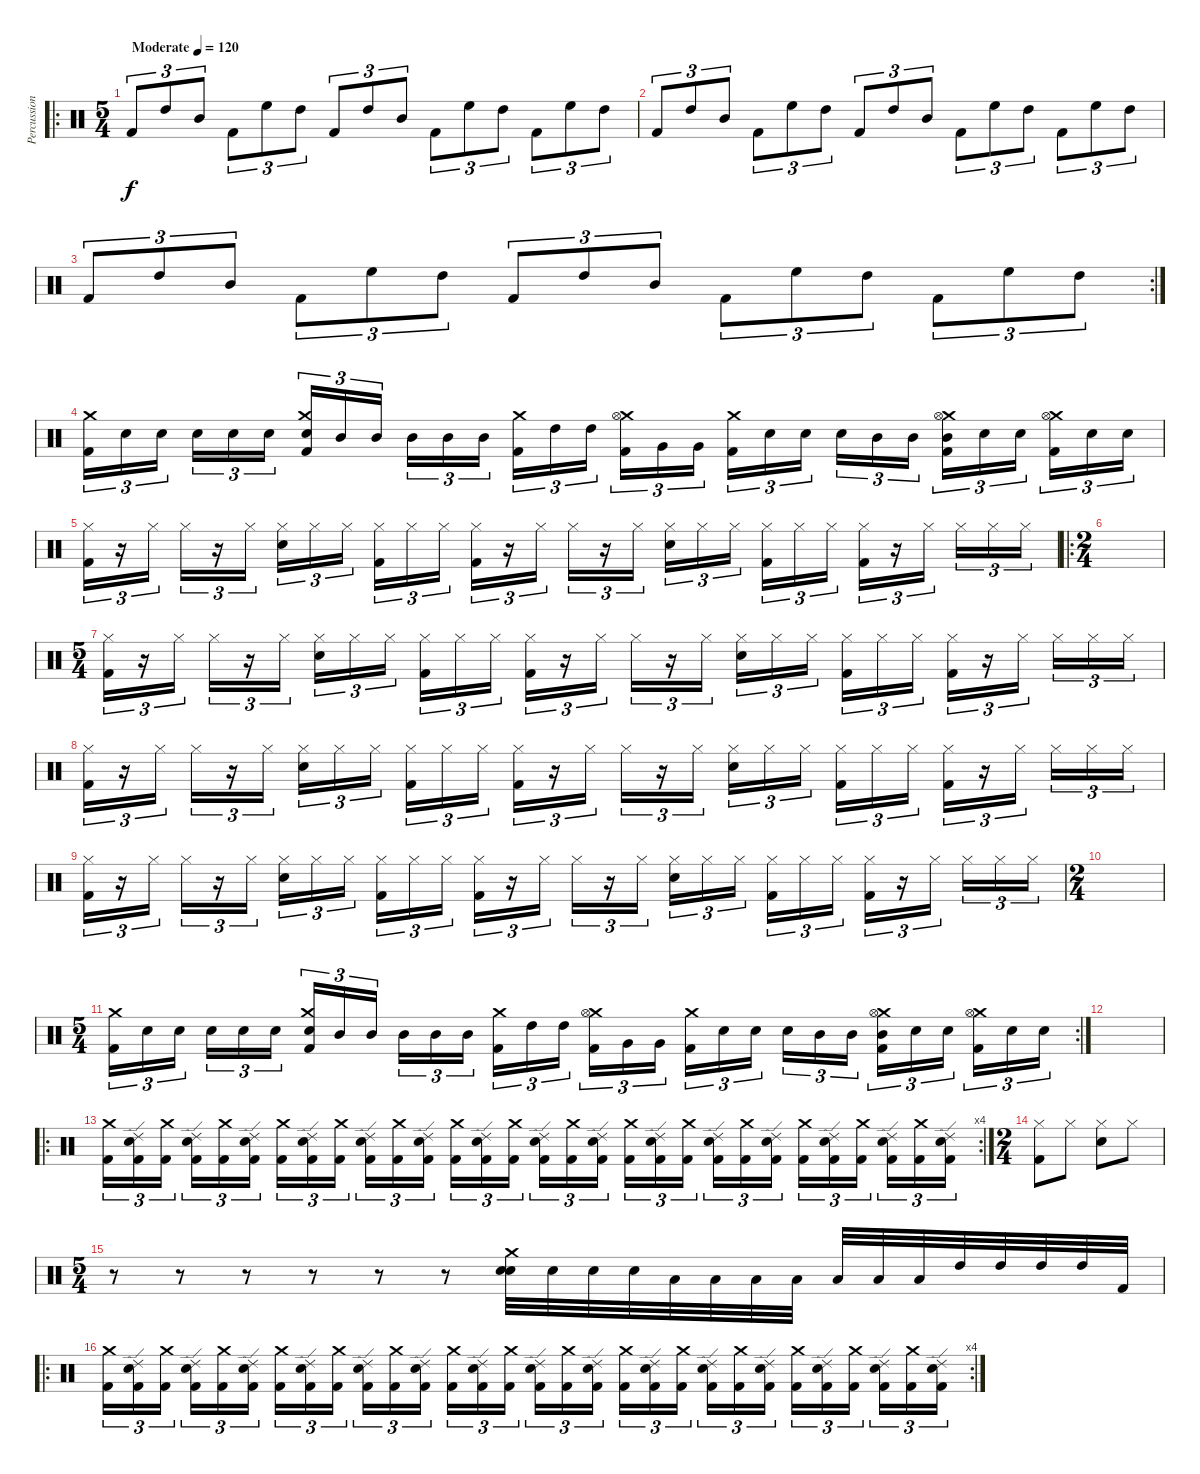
\track ("Percussion" "Percussion") {instrument percussion}
\staff {score}
\articulation defaults
\ro
\ts (5 4)
\tempo (120 "Moderate")
\clef neutral
\ks c "Kick (hit) 2".8{tu (3 2) dy f} "High Tom (hit)".8{tu (3 2)} "Mid Tom (hit)".8{tu (3 2)} "Kick (hit) 2".8{tu (3 2)} "High Floor Tom (hit)".8{tu (3 2)} "High Tom (hit)".8{tu (3 2)} "Kick (hit) 2".8{tu (3 2)} "High Tom (hit)".8{tu (3 2)} "Mid Tom (hit)".8{tu (3 2)} "Kick (hit) 2".8{tu (3 2)} "High Floor Tom (hit)".8{tu (3 2)} "High Tom (hit)".8{tu (3 2)} "Kick (hit) 2".8{tu (3 2)} "High Floor Tom (hit)".8{tu (3 2)} "High Tom (hit)".8{tu (3 2)}
|
"Kick (hit) 2".8{tu (3 2)} "High Tom (hit)".8{tu (3 2)} "Mid Tom (hit)".8{tu (3 2)} "Kick (hit) 2".8{tu (3 2)} "High Floor Tom (hit)".8{tu (3 2)} "High Tom (hit)".8{tu (3 2)} "Kick (hit) 2".8{tu (3 2)} "High Tom (hit)".8{tu (3 2)} "Mid Tom (hit)".8{tu (3 2)} "Kick (hit) 2".8{tu (3 2)} "High Floor Tom (hit)".8{tu (3 2)} "High Tom (hit)".8{tu (3 2)} "Kick (hit) 2".8{tu (3 2)} "High Floor Tom (hit)".8{tu (3 2)} "High Tom (hit)".8{tu (3 2)} |
\rc 2 "Kick (hit) 2".8{tu (3 2)} "High Tom (hit)".8{tu (3 2)} "Mid Tom (hit)".8{tu (3 2)} "Kick (hit) 2".8{tu (3 2)} "High Floor Tom (hit)".8{tu (3 2)} "High Tom (hit)".8{tu (3 2)} "Kick (hit) 2".8{tu (3 2)} "High Tom (hit)".8{tu (3 2)} "Mid Tom (hit)".8{tu (3 2)} "Kick (hit) 2".8{tu (3 2)} "High Floor Tom (hit)".8{tu (3 2)} "High Tom (hit)".8{tu (3 2)} "Kick (hit) 2".8{tu (3 2)} "High Floor Tom (hit)".8{tu (3 2)} "High Tom (hit)".8{tu (3 2)}
|
("Kick (hit) 2" "Crash medium (hit)").16{tu (3 2)} "Snare (hit) 2".16{tu (3 2)} "Snare (hit) 2".16{tu (3 2) beam splitsecondary} "Snare (hit) 2".16{tu (3 2)} "Snare (hit) 2".16{tu (3 2)} "Snare (hit) 2".16{tu (3 2)} ("Kick (hit) 2" "Crash medium (hit)" "Snare (hit) 2").16{tu (3 2)} "Mid Tom (hit)".16{tu (3 2)} "Mid Tom (hit)".16{tu (3 2) beam splitsecondary} "Mid Tom (hit)".16{tu (3 2)} "Mid Tom (hit)".16{tu (3 2)} "Mid Tom (hit)".16{tu (3 2)} ("Kick (hit) 2" "Crash medium (hit)").16{tu (3 2)} "High Tom (hit)".16{tu (3 2)} "High Tom (hit)".16{tu (3 2) beam splitsecondary} ("Kick (hit) 2" "Crash medium (hit)" "Hi-Hat (open)").16{tu (3 2)} "Very Low Tom (hit)".16{tu (3 2)} "Very Low Tom (hit)".16{tu (3 2)} ("Kick (hit) 2" "Crash medium (hit)").16{tu (3 2)} "Snare (hit) 2".16{tu (3 2)} "Snare (hit) 2".16{tu (3 2) beam splitsecondary} "Snare (hit) 2".16{tu (3 2)} "Mid Tom (hit)".16{tu (3 2)} "Mid Tom (hit)".16{tu (3 2)} ("Kick (hit) 2" "Crash medium (hit)" "Mid Tom (hit)" "Hi-Hat (open)").16{tu (3 2)} "Snare (hit) 2".16{tu (3 2)} "Snare (hit) 2".16{tu (3 2) beam splitsecondary} ("Crash medium (hit)" "Kick (hit) 2" "Hi-Hat (open)").16{tu (3 2)} "Snare (hit) 2".16{tu (3 2)} "Snare (hit) 2".16{tu (3 2)} |
("Kick (hit) 2" "Hi-Hat (closed)").16{tu (3 2)} r.16{tu (3 2)} "Hi-Hat (closed)".16{tu (3 2)} "Hi-Hat (closed)".16{tu (3 2)} r.16{tu (3 2)} "Hi-Hat (closed)".16{tu (3 2)} ("Snare (hit) 2" "Hi-Hat (closed)").16{tu (3 2)} "Hi-Hat (closed)".16{tu (3 2)} "Hi-Hat (closed)".16{tu (3 2) beam splitsecondary} ("Kick (hit) 2" "Hi-Hat (closed)").16{tu (3 2)} "Hi-Hat (closed)".16{tu (3 2)} "Hi-Hat (closed)".16{tu (3 2)} ("Kick (hit) 2" "Hi-Hat (closed)").16{tu (3 2)} r.16{tu (3 2)} "Hi-Hat (closed)".16{tu (3 2)} "Hi-Hat (closed)".16{tu (3 2)} r.16{tu (3 2)} "Hi-Hat (closed)".16{tu (3 2)} ("Snare (hit) 2" "Hi-Hat (closed)").16{tu (3 2)} "Hi-Hat (closed)".16{tu (3 2)} "Hi-Hat (closed)".16{tu (3 2) beam splitsecondary} ("Kick (hit) 2" "Hi-Hat (closed)").16{tu (3 2)} "Hi-Hat (closed)".16{tu (3 2)} "Hi-Hat (closed)".16{tu (3 2)} ("Kick (hit) 2" "Hi-Hat (closed)").16{tu (3 2)} r.16{tu (3 2)} "Hi-Hat (closed)".16{tu (3 2) beam splitsecondary} "Hi-Hat (closed)".16{tu (3 2)} "Hi-Hat (closed)".16{tu (3 2)} "Hi-Hat (closed)".16{tu (3 2)} |
\ro
\ts (2 4)
|
\ts (5 4)
("Kick (hit) 2" "Hi-Hat (closed)").16{tu (3 2)} r.16{tu (3 2)} "Hi-Hat (closed)".16{tu (3 2)} "Hi-Hat (closed)".16{tu (3 2)} r.16{tu (3 2)} "Hi-Hat (closed)".16{tu (3 2)} ("Snare (hit) 2" "Hi-Hat (closed)").16{tu (3 2)} "Hi-Hat (closed)".16{tu (3 2)} "Hi-Hat (closed)".16{tu (3 2) beam splitsecondary} ("Kick (hit) 2" "Hi-Hat (closed)").16{tu (3 2)} "Hi-Hat (closed)".16{tu (3 2)} "Hi-Hat (closed)".16{tu (3 2)} ("Kick (hit) 2" "Hi-Hat (closed)").16{tu (3 2)} r.16{tu (3 2)} "Hi-Hat (closed)".16{tu (3 2)} "Hi-Hat (closed)".16{tu (3 2)} r.16{tu (3 2)} "Hi-Hat (closed)".16{tu (3 2)} ("Snare (hit) 2" "Hi-Hat (closed)").16{tu (3 2)} "Hi-Hat (closed)".16{tu (3 2)} "Hi-Hat (closed)".16{tu (3 2) beam splitsecondary} ("Kick (hit) 2" "Hi-Hat (closed)").16{tu (3 2)} "Hi-Hat (closed)".16{tu (3 2)} "Hi-Hat (closed)".16{tu (3 2)} ("Kick (hit) 2" "Hi-Hat (closed)").16{tu (3 2)} r.16{tu (3 2)} "Hi-Hat (closed)".16{tu (3 2) beam splitsecondary} "Hi-Hat (closed)".16{tu (3 2)} "Hi-Hat (closed)".16{tu (3 2)} "Hi-Hat (closed)".16{tu (3 2)} |
("Kick (hit) 2" "Hi-Hat (closed)").16{tu (3 2)} r.16{tu (3 2)} "Hi-Hat (closed)".16{tu (3 2)} "Hi-Hat (closed)".16{tu (3 2)} r.16{tu (3 2)} "Hi-Hat (closed)".16{tu (3 2)} ("Snare (hit) 2" "Hi-Hat (closed)").16{tu (3 2)} "Hi-Hat (closed)".16{tu (3 2)} "Hi-Hat (closed)".16{tu (3 2) beam splitsecondary} ("Kick (hit) 2" "Hi-Hat (closed)").16{tu (3 2)} "Hi-Hat (closed)".16{tu (3 2)} "Hi-Hat (closed)".16{tu (3 2)} ("Kick (hit) 2" "Hi-Hat (closed)").16{tu (3 2)} r.16{tu (3 2)} "Hi-Hat (closed)".16{tu (3 2)} "Hi-Hat (closed)".16{tu (3 2)} r.16{tu (3 2)} "Hi-Hat (closed)".16{tu (3 2)} ("Snare (hit) 2" "Hi-Hat (closed)").16{tu (3 2)} "Hi-Hat (closed)".16{tu (3 2)} "Hi-Hat (closed)".16{tu (3 2) beam splitsecondary} ("Kick (hit) 2" "Hi-Hat (closed)").16{tu (3 2)} "Hi-Hat (closed)".16{tu (3 2)} "Hi-Hat (closed)".16{tu (3 2)} ("Kick (hit) 2" "Hi-Hat (closed)").16{tu (3 2)} r.16{tu (3 2)} "Hi-Hat (closed)".16{tu (3 2) beam splitsecondary} "Hi-Hat (closed)".16{tu (3 2)} "Hi-Hat (closed)".16{tu (3 2)} "Hi-Hat (closed)".16{tu (3 2)} |
("Kick (hit) 2" "Hi-Hat (closed)").16{tu (3 2)} r.16{tu (3 2)} "Hi-Hat (closed)".16{tu (3 2)} "Hi-Hat (closed)".16{tu (3 2)} r.16{tu (3 2)} "Hi-Hat (closed)".16{tu (3 2)} ("Snare (hit) 2" "Hi-Hat (closed)").16{tu (3 2)} "Hi-Hat (closed)".16{tu (3 2)} "Hi-Hat (closed)".16{tu (3 2) beam splitsecondary} ("Kick (hit) 2" "Hi-Hat (closed)").16{tu (3 2)} "Hi-Hat (closed)".16{tu (3 2)} "Hi-Hat (closed)".16{tu (3 2)} ("Kick (hit) 2" "Hi-Hat (closed)").16{tu (3 2)} r.16{tu (3 2)} "Hi-Hat (closed)".16{tu (3 2)} "Hi-Hat (closed)".16{tu (3 2)} r.16{tu (3 2)} "Hi-Hat (closed)".16{tu (3 2)} ("Snare (hit) 2" "Hi-Hat (closed)").16{tu (3 2)} "Hi-Hat (closed)".16{tu (3 2)} "Hi-Hat (closed)".16{tu (3 2) beam splitsecondary} ("Kick (hit) 2" "Hi-Hat (closed)").16{tu (3 2)} "Hi-Hat (closed)".16{tu (3 2)} "Hi-Hat (closed)".16{tu (3 2)} ("Kick (hit) 2" "Hi-Hat (closed)").16{tu (3 2)} r.16{tu (3 2)} "Hi-Hat (closed)".16{tu (3 2) beam splitsecondary} "Hi-Hat (closed)".16{tu (3 2)} "Hi-Hat (closed)".16{tu (3 2)} "Hi-Hat (closed)".16{tu (3 2)} |
\ts (2 4)
|
\rc 2
\ts (5 4)
("Kick (hit) 2" "Crash medium (hit)").16{tu (3 2)} "Snare (hit) 2".16{tu (3 2)} "Snare (hit) 2".16{tu (3 2) beam splitsecondary} "Snare (hit) 2".16{tu (3 2)} "Snare (hit) 2".16{tu (3 2)} "Snare (hit) 2".16{tu (3 2)} ("Kick (hit) 2" "Crash medium (hit)" "Snare (hit) 2").16{tu (3 2)} "Mid Tom (hit)".16{tu (3 2)} "Mid Tom (hit)".16{tu (3 2) beam splitsecondary} "Mid Tom (hit)".16{tu (3 2)} "Mid Tom (hit)".16{tu (3 2)} "Mid Tom (hit)".16{tu (3 2)} ("Kick (hit) 2" "Crash medium (hit)").16{tu (3 2)} "High Tom (hit)".16{tu (3 2)} "High Tom (hit)".16{tu (3 2) beam splitsecondary} ("Kick (hit) 2" "Crash medium (hit)" "Hi-Hat (open)").16{tu (3 2)} "Very Low Tom (hit)".16{tu (3 2)} "Very Low Tom (hit)".16{tu (3 2)} ("Kick (hit) 2" "Crash medium (hit)").16{tu (3 2)} "Snare (hit) 2".16{tu (3 2)} "Snare (hit) 2".16{tu (3 2) beam splitsecondary} "Snare (hit) 2".16{tu (3 2)} "Mid Tom (hit)".16{tu (3 2)} "Mid Tom (hit)".16{tu (3 2)} ("Kick (hit) 2" "Crash medium (hit)" "Mid Tom (hit)" "Hi-Hat (open)").16{tu (3 2)} "Snare (hit) 2".16{tu (3 2)} "Snare (hit) 2".16{tu (3 2) beam splitsecondary} ("Crash medium (hit)" "Kick (hit) 2" "Hi-Hat (open)").16{tu (3 2)} "Snare (hit) 2".16{tu (3 2)} "Snare (hit) 2".16{tu (3 2)} |
|
\ro
\rc 4
("Crash medium (hit)" "Kick (hit) 2").16{tu (3 2)} ("Ride (edge) 2" "Snare (hit) 2" "Kick (hit) 2").16{tu (3 2)} ("Crash medium (hit)" "Kick (hit) 2").16{tu (3 2) beam splitsecondary} ("Ride (edge) 2" "Snare (hit) 2" "Kick (hit) 2").16{tu (3 2)} ("Crash medium (hit)" "Kick (hit) 2").16{tu (3 2)} ("Ride (edge) 2" "Snare (hit) 2" "Kick (hit) 2").16{tu (3 2)} ("Crash medium (hit)" "Kick (hit) 2").16{tu (3 2)} ("Ride (edge) 2" "Snare (hit) 2" "Kick (hit) 2").16{tu (3 2)} ("Crash medium (hit)" "Kick (hit) 2").16{tu (3 2) beam splitsecondary} ("Ride (edge) 2" "Snare (hit) 2" "Kick (hit) 2").16{tu (3 2)} ("Crash medium (hit)" "Kick (hit) 2").16{tu (3 2)} ("Ride (edge) 2" "Snare (hit) 2" "Kick (hit) 2").16{tu (3 2)} ("Crash medium (hit)" "Kick (hit) 2").16{tu (3 2)} ("Ride (edge) 2" "Snare (hit) 2" "Kick (hit) 2").16{tu (3 2)} ("Crash medium (hit)" "Kick (hit) 2").16{tu (3 2) beam splitsecondary} ("Ride (edge) 2" "Snare (hit) 2" "Kick (hit) 2").16{tu (3 2)} ("Crash medium (hit)" "Kick (hit) 2").16{tu (3 2)} ("Ride (edge) 2" "Snare (hit) 2" "Kick (hit) 2").16{tu (3 2)} ("Crash medium (hit)" "Kick (hit) 2").16{tu (3 2)} ("Ride (edge) 2" "Snare (hit) 2" "Kick (hit) 2").16{tu (3 2)} ("Crash medium (hit)" "Kick (hit) 2").16{tu (3 2) beam splitsecondary} ("Ride (edge) 2" "Snare (hit) 2" "Kick (hit) 2").16{tu (3 2)} ("Crash medium (hit)" "Kick (hit) 2").16{tu (3 2)} ("Ride (edge) 2" "Snare (hit) 2" "Kick (hit) 2").16{tu (3 2)} ("Crash medium (hit)" "Kick (hit) 2").16{tu (3 2)} ("Ride (edge) 2" "Snare (hit) 2" "Kick (hit) 2").16{tu (3 2)} ("Crash medium (hit)" "Kick (hit) 2").16{tu (3 2) beam splitsecondary} ("Ride (edge) 2" "Snare (hit) 2" "Kick (hit) 2").16{tu (3 2)} ("Crash medium (hit)" "Kick (hit) 2").16{tu (3 2)} ("Ride (edge) 2" "Snare (hit) 2" "Kick (hit) 2").16{tu (3 2)} |
\ts (2 4)
("Kick (hit) 2" "Hi-Hat (closed)").8 "Hi-Hat (closed)".8 ("Snare (hit) 2" "Hi-Hat (closed)").8 "Hi-Hat (closed)".8 |
\ts (5 4)
r.8 r.8 r.8 r.8 r.8 r.8 ("Crash medium (hit)" "Snare (hit) 2" "Snare (hit) 2").32 "Snare (hit) 2".32 "Snare (hit) 2".32 "Snare (hit) 2".32 "Low Floor Tom (hit)".32 "Low Floor Tom (hit)".32 "Low Floor Tom (hit)".32 "Low Floor Tom (hit)".32 "Low Floor Tom (hit)".32 "Low Floor Tom (hit)".32 "Low Floor Tom (hit)".32 "High Tom (hit)".32 "High Tom (hit)".32 "High Tom (hit)".32 "High Tom (hit)".32 "Kick (hit) 2".32 |
\ro
\rc 4
("Crash medium (hit)" "Kick (hit) 2").16{tu (3 2)} ("Ride (edge) 2" "Snare (hit) 2" "Kick (hit) 2").16{tu (3 2)} ("Crash medium (hit)" "Kick (hit) 2").16{tu (3 2) beam splitsecondary} ("Ride (edge) 2" "Snare (hit) 2" "Kick (hit) 2").16{tu (3 2)} ("Crash medium (hit)" "Kick (hit) 2").16{tu (3 2)} ("Ride (edge) 2" "Snare (hit) 2" "Kick (hit) 2").16{tu (3 2)} ("Crash medium (hit)" "Kick (hit) 2").16{tu (3 2)} ("Ride (edge) 2" "Snare (hit) 2" "Kick (hit) 2").16{tu (3 2)} ("Crash medium (hit)" "Kick (hit) 2").16{tu (3 2) beam splitsecondary} ("Ride (edge) 2" "Snare (hit) 2" "Kick (hit) 2").16{tu (3 2)} ("Crash medium (hit)" "Kick (hit) 2").16{tu (3 2)} ("Ride (edge) 2" "Snare (hit) 2" "Kick (hit) 2").16{tu (3 2)} ("Crash medium (hit)" "Kick (hit) 2").16{tu (3 2)} ("Ride (edge) 2" "Snare (hit) 2" "Kick (hit) 2").16{tu (3 2)} ("Crash medium (hit)" "Kick (hit) 2").16{tu (3 2) beam splitsecondary} ("Ride (edge) 2" "Snare (hit) 2" "Kick (hit) 2").16{tu (3 2)} ("Crash medium (hit)" "Kick (hit) 2").16{tu (3 2)} ("Ride (edge) 2" "Snare (hit) 2" "Kick (hit) 2").16{tu (3 2)} ("Crash medium (hit)" "Kick (hit) 2").16{tu (3 2)} ("Ride (edge) 2" "Snare (hit) 2" "Kick (hit) 2").16{tu (3 2)} ("Crash medium (hit)" "Kick (hit) 2").16{tu (3 2) beam splitsecondary} ("Ride (edge) 2" "Snare (hit) 2" "Kick (hit) 2").16{tu (3 2)} ("Crash medium (hit)" "Kick (hit) 2").16{tu (3 2)} ("Ride (edge) 2" "Snare (hit) 2" "Kick (hit) 2").16{tu (3 2)} ("Crash medium (hit)" "Kick (hit) 2").16{tu (3 2)} ("Ride (edge) 2" "Snare (hit) 2" "Kick (hit) 2").16{tu (3 2)} ("Crash medium (hit)" "Kick (hit) 2").16{tu (3 2) beam splitsecondary} ("Ride (edge) 2" "Snare (hit) 2" "Kick (hit) 2").16{tu (3 2)} ("Crash medium (hit)" "Kick (hit) 2").16{tu (3 2)} ("Ride (edge) 2" "Snare (hit) 2" "Kick (hit) 2").16{tu (3 2)}
